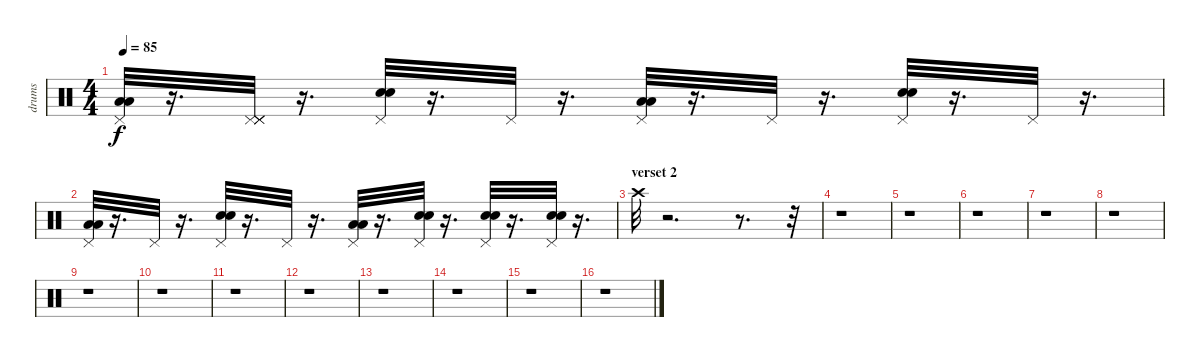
\track ("drums" "drums") {instrument percussion}
\staff {score}
\articulation defaults
\ts (4 4)
\tempo 85
\clef neutral
\ks c
("Pedal Hi-Hat (hit)" "Low Floor Tom (hit)" "Low Tom (hit)").32{dy f} r.16{d} ("Pedal Hi-Hat (hit)" "Pedal Hi-Hat (hit)" "Pedal Hi-Hat (hit)" "Pedal Hi-Hat (hit)").32 r.16{d} ("Pedal Hi-Hat (hit)" "Electric Snare (hit)" "Snare (hit) 2").32 r.16{d} "Pedal Hi-Hat (hit)".32 r.16{d} ("Pedal Hi-Hat (hit)" "Low Tom (hit)" "Low Floor Tom (hit)").32 r.16{d} "Pedal Hi-Hat (hit)".32 r.16{d} ("Pedal Hi-Hat (hit)" "Snare (hit) 2" "Electric Snare (hit)").32 r.16{d} "Pedal Hi-Hat (hit)".32 r.16{d} |
("Low Floor Tom (hit)" "Low Tom (hit)" "Pedal Hi-Hat (hit)").32 r.16{d} "Pedal Hi-Hat (hit)".32 r.16{d} ("Snare (hit) 2" "Electric Snare (hit)" "Pedal Hi-Hat (hit)").32 r.16{d} "Pedal Hi-Hat (hit)".32 r.16{d} ("Low Tom (hit)" "Low Floor Tom (hit)" "Pedal Hi-Hat (hit)").32 r.16{d} ("Snare (hit) 2" "Pedal Hi-Hat (hit)" "Electric Snare (hit)").32 r.16{d} ("Snare (hit) 2" "Electric Snare (hit)" "Pedal Hi-Hat (hit)").32 r.16{d} ("Electric Snare (hit)" "Pedal Hi-Hat (hit)" "Snare (hit) 2").32 r.16{d} |
\section ("" "verset 2")
"Crash high (hit)".32 r.2{d} r.8{d} r.32 |
r.1 |
r.1 |
r.1 |
r.1 |
r.1 |
r.1 |
r.1 |
r.1 |
r.1 |
r.1 |
r.1 |
r.1 |
r.1
